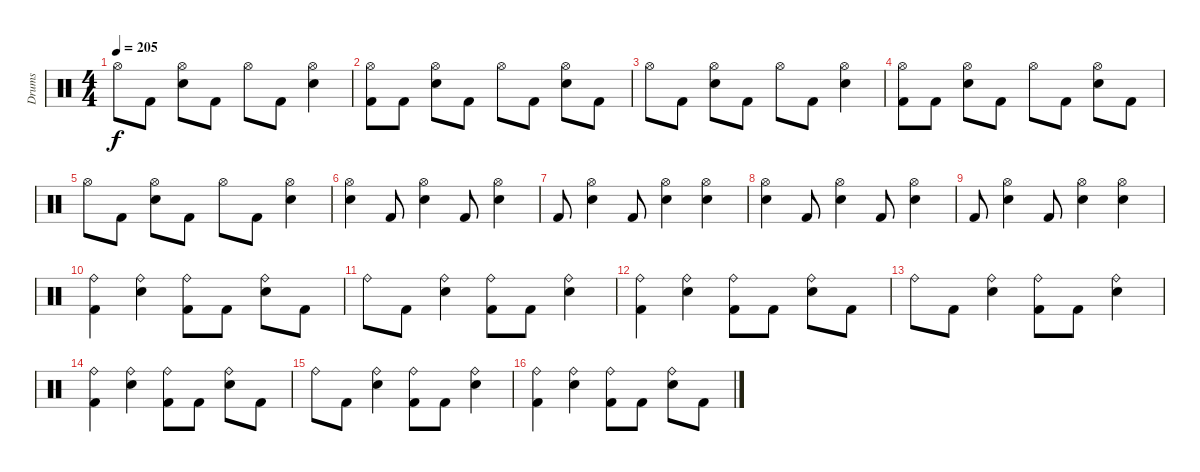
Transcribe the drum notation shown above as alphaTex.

\track ("Drums" "Drums") {instrument percussion}
\staff {score}
\articulation defaults
\ts (4 4)
\tempo 205
\clef neutral
\ks c "Hi-Hat (open)".8{dy f} "Kick (hit) 2".8
("Hi-Hat (open)" "Snare (hit) 2").8 "Kick (hit) 2".8 "Hi-Hat (open)".8 "Kick (hit) 2".8 ("Hi-Hat (open)" "Snare (hit) 2").4 |
("Hi-Hat (open)" "Kick (hit) 2").8 "Kick (hit) 2".8 ("Hi-Hat (open)" "Snare (hit) 2").8 "Kick (hit) 2".8 "Hi-Hat (open)".8 "Kick (hit) 2".8 ("Hi-Hat (open)" "Snare (hit) 2").8 "Kick (hit) 2".8 |
"Hi-Hat (open)".8 "Kick (hit) 2".8 ("Hi-Hat (open)" "Snare (hit) 2").8 "Kick (hit) 2".8 "Hi-Hat (open)".8 "Kick (hit) 2".8 ("Hi-Hat (open)" "Snare (hit) 2").4 |
("Hi-Hat (open)" "Kick (hit) 2").8 "Kick (hit) 2".8 ("Hi-Hat (open)" "Snare (hit) 2").8 "Kick (hit) 2".8 "Hi-Hat (open)".8 "Kick (hit) 2".8 ("Hi-Hat (open)" "Snare (hit) 2").8 "Kick (hit) 2".8 |
"Hi-Hat (open)".8 "Kick (hit) 2".8 ("Hi-Hat (open)" "Snare (hit) 2").8 "Kick (hit) 2".8 "Hi-Hat (open)".8 "Kick (hit) 2".8 ("Hi-Hat (open)" "Snare (hit) 2").4 |
("Hi-Hat (open)" "Snare (hit) 2").4 "Kick (hit) 2".8 ("Hi-Hat (open)" "Snare (hit) 2").4 "Kick (hit) 2".8 ("Hi-Hat (open)" "Snare (hit) 2").4 |
"Kick (hit) 2".8 ("Hi-Hat (open)" "Snare (hit) 2").4 "Kick (hit) 2".8 ("Hi-Hat (open)" "Snare (hit) 2").4 ("Hi-Hat (open)" "Snare (hit) 2").4 |
("Hi-Hat (open)" "Snare (hit) 2").4 "Kick (hit) 2".8 ("Hi-Hat (open)" "Snare (hit) 2").4 "Kick (hit) 2".8 ("Hi-Hat (open)" "Snare (hit) 2").4 |
"Kick (hit) 2".8 ("Hi-Hat (open)" "Snare (hit) 2").4 "Kick (hit) 2".8 ("Hi-Hat (open)" "Snare (hit) 2").4 ("Hi-Hat (open)" "Snare (hit) 2").4 |
("Ride (bell)" "Kick (hit) 2").4 ("Ride (bell)" "Snare (hit) 2").4 ("Ride (bell)" "Kick (hit) 2").8 "Kick (hit) 2".8 ("Ride (bell)" "Snare (hit) 2").8 "Kick (hit) 2".8 |
"Ride (bell)".8 "Kick (hit) 2".8 ("Ride (bell)" "Snare (hit) 2").4 ("Ride (bell)" "Kick (hit) 2").8 "Kick (hit) 2".8 ("Ride (bell)" "Snare (hit) 2").4 |
("Ride (bell)" "Kick (hit) 2").4 ("Ride (bell)" "Snare (hit) 2").4 ("Ride (bell)" "Kick (hit) 2").8 "Kick (hit) 2".8 ("Ride (bell)" "Snare (hit) 2").8 "Kick (hit) 2".8 |
"Ride (bell)".8 "Kick (hit) 2".8 ("Ride (bell)" "Snare (hit) 2").4 ("Ride (bell)" "Kick (hit) 2").8 "Kick (hit) 2".8 ("Ride (bell)" "Snare (hit) 2").4 |
("Ride (bell)" "Kick (hit) 2").4 ("Ride (bell)" "Snare (hit) 2").4 ("Ride (bell)" "Kick (hit) 2").8 "Kick (hit) 2".8 ("Ride (bell)" "Snare (hit) 2").8 "Kick (hit) 2".8 |
"Ride (bell)".8 "Kick (hit) 2".8 ("Ride (bell)" "Snare (hit) 2").4 ("Ride (bell)" "Kick (hit) 2").8 "Kick (hit) 2".8 ("Ride (bell)" "Snare (hit) 2").4 |
("Ride (bell)" "Kick (hit) 2").4 ("Ride (bell)" "Snare (hit) 2").4 ("Ride (bell)" "Kick (hit) 2").8 "Kick (hit) 2".8 ("Ride (bell)" "Snare (hit) 2").8 "Kick (hit) 2".8
